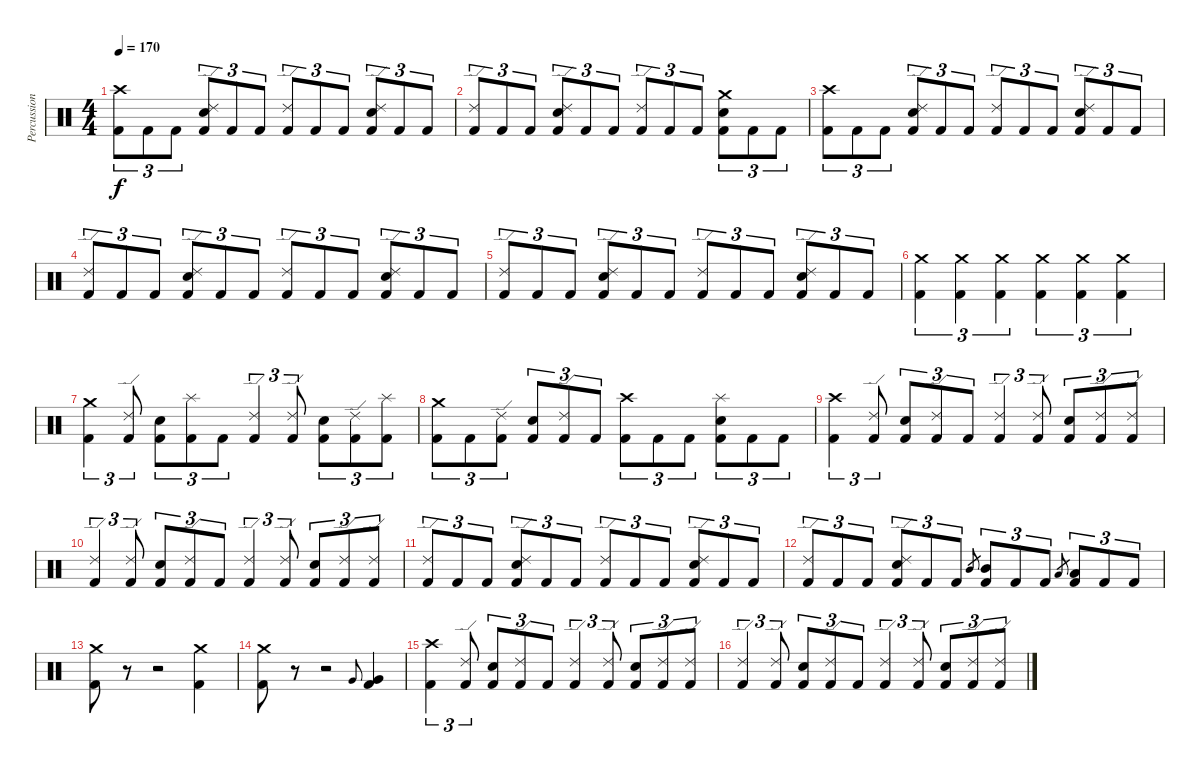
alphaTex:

\track ("Percussioni" "Percussion") {instrument percussion}
\staff {score}
\articulation defaults
\ts (4 4)
\tempo 170
\clef neutral
\ks c
("Crash high (hit)" "Kick (hit) 2").8{tu (3 2) dy f} "Kick (hit) 2".8{tu (3 2)} "Kick (hit) 2".8{tu (3 2)} ("Ride (edge) 2" "Snare (hit) 2" "Kick (hit) 2").8{tu (3 2)} "Kick (hit) 2".8{tu (3 2)} "Kick (hit) 2".8{tu (3 2)} ("Ride (edge) 2" "Kick (hit) 2").8{tu (3 2)} "Kick (hit) 2".8{tu (3 2)} "Kick (hit) 2".8{tu (3 2)} ("Ride (edge) 2" "Snare (hit) 2" "Kick (hit) 2").8{tu (3 2)} "Kick (hit) 2".8{tu (3 2)} "Kick (hit) 2".8{tu (3 2)} |
("Ride (edge) 2" "Kick (hit) 2").8{tu (3 2)} "Kick (hit) 2".8{tu (3 2)} "Kick (hit) 2".8{tu (3 2)} ("Ride (edge) 2" "Snare (hit) 2" "Kick (hit) 2").8{tu (3 2)} "Kick (hit) 2".8{tu (3 2)} "Kick (hit) 2".8{tu (3 2)} ("Ride (edge) 2" "Kick (hit) 2").8{tu (3 2)} "Kick (hit) 2".8{tu (3 2)} "Kick (hit) 2".8{tu (3 2)} ("Crash medium (hit)" "Snare (hit) 2" "Kick (hit) 2").8{tu (3 2)} "Kick (hit) 2".8{tu (3 2)} "Kick (hit) 2".8{tu (3 2)} |
("Crash high (hit)" "Kick (hit) 2").8{tu (3 2)} "Kick (hit) 2".8{tu (3 2)} "Kick (hit) 2".8{tu (3 2)} ("Ride (edge) 2" "Snare (hit) 2" "Kick (hit) 2").8{tu (3 2)} "Kick (hit) 2".8{tu (3 2)} "Kick (hit) 2".8{tu (3 2)} ("Ride (edge) 2" "Kick (hit) 2").8{tu (3 2)} "Kick (hit) 2".8{tu (3 2)} "Kick (hit) 2".8{tu (3 2)} ("Ride (edge) 2" "Snare (hit) 2" "Kick (hit) 2").8{tu (3 2)} "Kick (hit) 2".8{tu (3 2)} "Kick (hit) 2".8{tu (3 2)} |
("Ride (edge) 2" "Kick (hit) 2").8{tu (3 2)} "Kick (hit) 2".8{tu (3 2)} "Kick (hit) 2".8{tu (3 2)} ("Ride (edge) 2" "Snare (hit) 2" "Kick (hit) 2").8{tu (3 2)} "Kick (hit) 2".8{tu (3 2)} "Kick (hit) 2".8{tu (3 2)} ("Ride (edge) 2" "Kick (hit) 2").8{tu (3 2)} "Kick (hit) 2".8{tu (3 2)} "Kick (hit) 2".8{tu (3 2)} ("Ride (edge) 2" "Snare (hit) 2" "Kick (hit) 2").8{tu (3 2)} "Kick (hit) 2".8{tu (3 2)} "Kick (hit) 2".8{tu (3 2)} |
("Ride (edge) 2" "Kick (hit) 2").8{tu (3 2)} "Kick (hit) 2".8{tu (3 2)} "Kick (hit) 2".8{tu (3 2)} ("Ride (edge) 2" "Snare (hit) 2" "Kick (hit) 2").8{tu (3 2)} "Kick (hit) 2".8{tu (3 2)} "Kick (hit) 2".8{tu (3 2)} ("Ride (edge) 2" "Kick (hit) 2").8{tu (3 2)} "Kick (hit) 2".8{tu (3 2)} "Kick (hit) 2".8{tu (3 2)} ("Ride (edge) 2" "Snare (hit) 2" "Kick (hit) 2").8{tu (3 2)} "Kick (hit) 2".8{tu (3 2)} "Kick (hit) 2".8{tu (3 2)} |
("Crash medium (hit)" "Kick (hit) 2").4{tu (3 2)} ("Crash medium (hit)" "Kick (hit) 2").4{tu (3 2)} ("Crash medium (hit)" "Kick (hit) 2").4{tu (3 2)} ("Crash medium (hit)" "Kick (hit) 2").4{tu (3 2)} ("Crash medium (hit)" "Kick (hit) 2").4{tu (3 2)} ("Crash medium (hit)" "Kick (hit) 2").4{tu (3 2)} |
("Crash medium (hit)" "Kick (hit) 2").4{tu (3 2)} ("Ride (edge) 2" "Kick (hit) 2").8{tu (3 2)} ("Snare (hit) 2" "Kick (hit) 2").8{tu (3 2)} ("Splash (hit)" "Kick (hit) 2").8{tu (3 2)} "Kick (hit) 2".8{tu (3 2)} ("Ride (edge) 2" "Kick (hit) 2").4{tu (3 2)} ("Ride (edge) 2" "Kick (hit) 2").8{tu (3 2)} ("Snare (hit) 2" "Kick (hit) 2").8{tu (3 2)} ("Ride (edge) 2" "Kick (hit) 2").8{tu (3 2)} ("Splash (hit)" "Kick (hit) 2").8{tu (3 2)} |
("Crash medium (hit)" "Kick (hit) 2").8{tu (3 2)} "Kick (hit) 2".8{tu (3 2)} ("Ride (edge) 2" "Kick (hit) 2").8{tu (3 2)} ("Snare (hit) 2" "Kick (hit) 2").8{tu (3 2)} ("Ride (edge) 2" "Kick (hit) 2").8{tu (3 2)} "Kick (hit) 2".8{tu (3 2)} ("Crash high (hit)" "Kick (hit) 2").8{tu (3 2)} "Kick (hit) 2".8{tu (3 2)} "Kick (hit) 2".8{tu (3 2)} ("Splash (hit)" "Snare (hit) 2" "Kick (hit) 2").8{tu (3 2)} "Kick (hit) 2".8{tu (3 2)} "Kick (hit) 2".8{tu (3 2)} |
("Crash high (hit)" "Kick (hit) 2").4{tu (3 2)} ("Ride (edge) 2" "Kick (hit) 2").8{tu (3 2)} ("Snare (hit) 2" "Kick (hit) 2").8{tu (3 2)} ("Ride (edge) 2" "Kick (hit) 2").8{tu (3 2)} "Kick (hit) 2".8{tu (3 2)} ("Ride (edge) 2" "Kick (hit) 2").4{tu (3 2)} ("Ride (edge) 2" "Kick (hit) 2").8{tu (3 2)} ("Snare (hit) 2" "Kick (hit) 2").8{tu (3 2)} ("Ride (edge) 2" "Kick (hit) 2").8{tu (3 2)} ("Ride (edge) 2" "Kick (hit) 2").8{tu (3 2)} |
("Ride (edge) 2" "Kick (hit) 2").4{tu (3 2)} ("Ride (edge) 2" "Kick (hit) 2").8{tu (3 2)} ("Snare (hit) 2" "Kick (hit) 2").8{tu (3 2)} ("Ride (edge) 2" "Kick (hit) 2").8{tu (3 2)} "Kick (hit) 2".8{tu (3 2)} ("Ride (edge) 2" "Kick (hit) 2").4{tu (3 2)} ("Ride (edge) 2" "Kick (hit) 2").8{tu (3 2)} ("Snare (hit) 2" "Kick (hit) 2").8{tu (3 2)} ("Ride (edge) 2" "Kick (hit) 2").8{tu (3 2)} ("Ride (edge) 2" "Kick (hit) 2").8{tu (3 2)} |
("Ride (edge) 2" "Kick (hit) 2").8{tu (3 2)} "Kick (hit) 2".8{tu (3 2)} "Kick (hit) 2".8{tu (3 2)} ("Ride (edge) 2" "Snare (hit) 2" "Kick (hit) 2").8{tu (3 2)} "Kick (hit) 2".8{tu (3 2)} "Kick (hit) 2".8{tu (3 2)} ("Ride (edge) 2" "Kick (hit) 2").8{tu (3 2)} "Kick (hit) 2".8{tu (3 2)} "Kick (hit) 2".8{tu (3 2)} ("Ride (edge) 2" "Snare (hit) 2" "Kick (hit) 2").8{tu (3 2)} "Kick (hit) 2".8{tu (3 2)} "Kick (hit) 2".8{tu (3 2)} |
("Ride (edge) 2" "Kick (hit) 2").8{tu (3 2)} "Kick (hit) 2".8{tu (3 2)} "Kick (hit) 2".8{tu (3 2)} ("Ride (edge) 2" "Snare (hit) 2" "Kick (hit) 2").8{tu (3 2)} "Kick (hit) 2".8{tu (3 2)} "Kick (hit) 2".8{tu (3 2)} "Mid Tom (hit)".8{gr} ("Mid Tom (hit)" "Kick (hit) 2").8{tu (3 2)} "Kick (hit) 2".8{tu (3 2)} "Kick (hit) 2".8{tu (3 2)} "Low Tom (hit)".8{gr} ("Low Tom (hit)" "Kick (hit) 2").8{tu (3 2)} "Kick (hit) 2".8{tu (3 2)} "Kick (hit) 2".8{tu (3 2)} |
("Crash medium (hit)" "Kick (hit) 2").8 r.8 r.2 ("Crash medium (hit)" "Kick (hit) 2").4 |
("Crash medium (hit)" "Kick (hit) 2").8 r.8 r.2 "Very Low Tom (hit)".8{gr onbeat} ("Very Low Tom (hit)" "Kick (hit) 2").4 |
("Crash high (hit)" "Kick (hit) 2").4{tu (3 2)} ("Ride (edge) 2" "Kick (hit) 2").8{tu (3 2)} ("Snare (hit) 2" "Kick (hit) 2").8{tu (3 2)} ("Ride (edge) 2" "Kick (hit) 2").8{tu (3 2)} "Kick (hit) 2".8{tu (3 2)} ("Ride (edge) 2" "Kick (hit) 2").4{tu (3 2)} ("Ride (edge) 2" "Kick (hit) 2").8{tu (3 2)} ("Snare (hit) 2" "Kick (hit) 2").8{tu (3 2)} ("Ride (edge) 2" "Kick (hit) 2").8{tu (3 2)} ("Ride (edge) 2" "Kick (hit) 2").8{tu (3 2)} |
("Ride (edge) 2" "Kick (hit) 2").4{tu (3 2)} ("Ride (edge) 2" "Kick (hit) 2").8{tu (3 2)} ("Snare (hit) 2" "Kick (hit) 2").8{tu (3 2)} ("Ride (edge) 2" "Kick (hit) 2").8{tu (3 2)} "Kick (hit) 2".8{tu (3 2)} ("Ride (edge) 2" "Kick (hit) 2").4{tu (3 2)} ("Ride (edge) 2" "Kick (hit) 2").8{tu (3 2)} ("Snare (hit) 2" "Kick (hit) 2").8{tu (3 2)} ("Ride (edge) 2" "Kick (hit) 2").8{tu (3 2)} ("Ride (edge) 2" "Kick (hit) 2").8{tu (3 2)}
